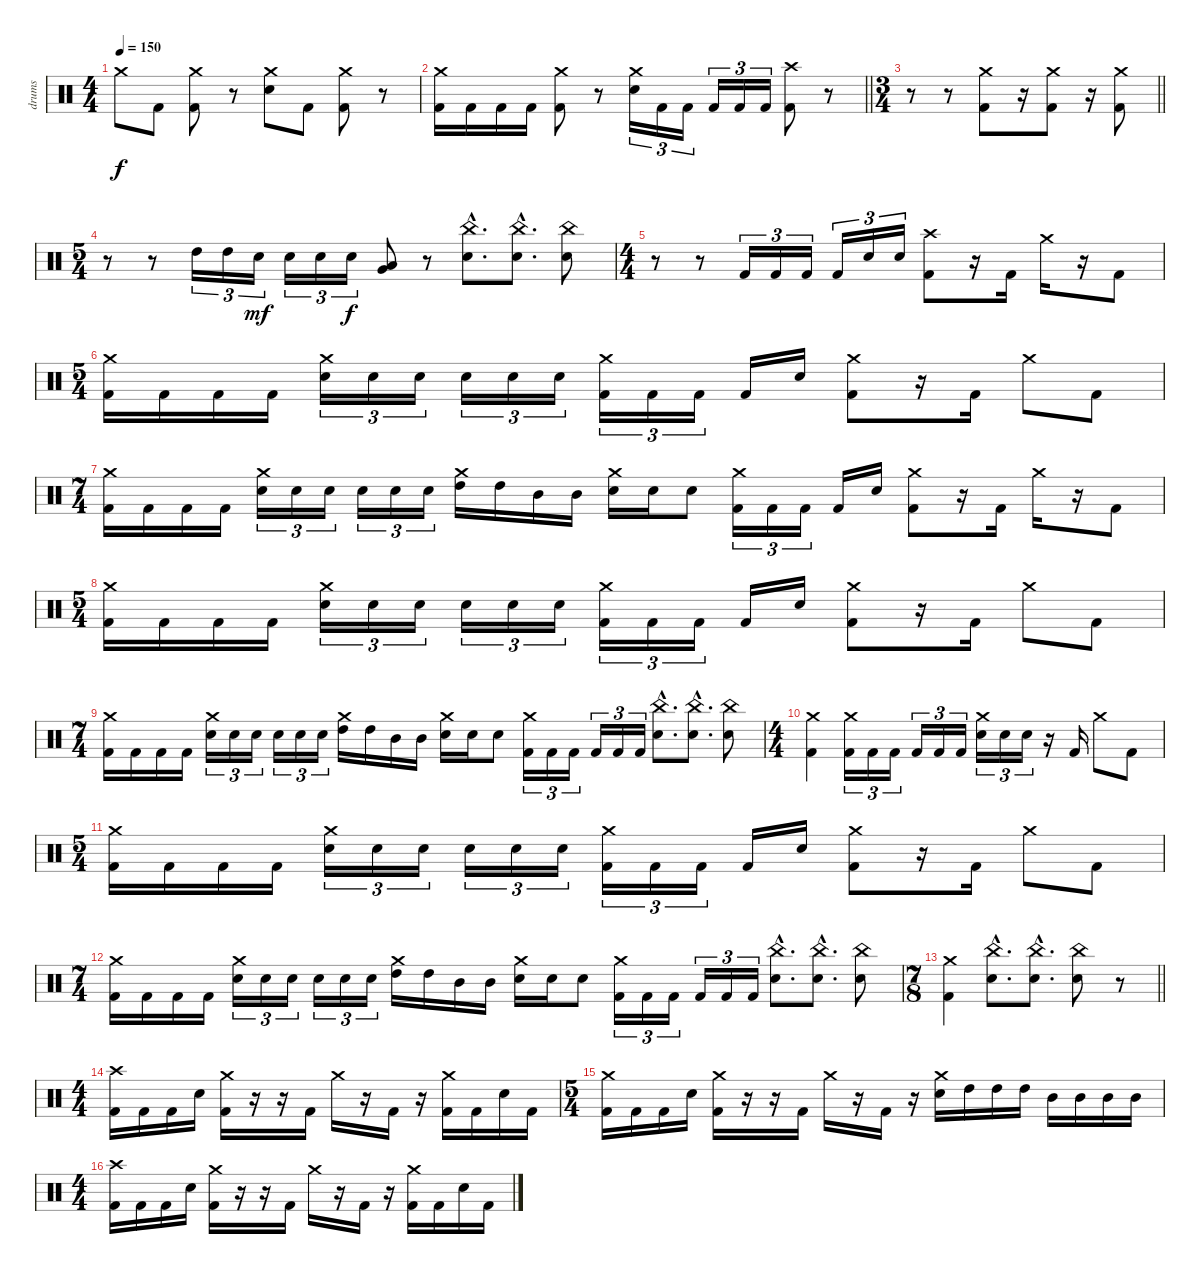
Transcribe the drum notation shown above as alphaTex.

\track ("drums" "drums") {instrument percussion}
\staff {score}
\articulation defaults
\ts (4 4)
\tempo 150
\clef neutral
\ks c "Crash medium (hit)".8{dy f} "Kick (hit) 2".8
("Crash medium (hit)" "Kick (hit) 2").8 r.8 ("Crash medium (hit)" "Electric Snare (hit)").8 "Kick (hit) 2".8 ("Crash medium (hit)" "Kick (hit) 2").8 r.8 |
\barLineRight lightlight
("Crash medium (hit)" "Kick (hit) 2").16 "Kick (hit) 2".16 "Kick (hit) 2".16 "Kick (hit) 2".16 ("Crash medium (hit)" "Kick (hit) 2").8 r.8 ("Crash medium (hit)" "Electric Snare (hit)").16{tu (3 2)} "Kick (hit) 2".16{tu (3 2)} "Kick (hit) 2".16{tu (3 2)} "Kick (hit) 2".16{tu (3 2)} "Kick (hit) 2".16{tu (3 2)} "Kick (hit) 2".16{tu (3 2)} ("Crash high (hit)" "Kick (hit) 2").8 r.8 |
\ts (3 4)
\section ("" "")
\barLineRight lightlight
r.8 r.8 ("Crash medium (hit)" "Kick (hit) 2").8 r.16{volume 0} ("Crash medium (hit)" "Kick (hit) 2").8{volume 16} r.16{volume 0} ("Crash medium (hit)" "Kick (hit) 2").8{volume 16} |
\ts (5 4)
\section ("" "")
r.8 r.8 "High Tom (hit)".16{tu (3 2)} "High Tom (hit)".16{tu (3 2)} "Electric Snare (hit)".16{tu (3 2) dy mf} "Electric Snare (hit)".16{tu (3 2)} "Electric Snare (hit)".16{tu (3 2)} "Electric Snare (hit)".16{tu (3 2) dy f} ("Low Floor Tom (hit)" "Very Low Tom (hit)").8 r.8 ("China (hit)"{hac} "Electric Snare (hit)"{hac}).8{d} ("China (hit)"{hac} "Electric Snare (hit)"{hac}).8{d} ("China (hit)" "Electric Snare (hit)").8 |
\ts (4 4)
r.8 r.8 "Kick (hit) 2".16{tu (3 2)} "Kick (hit) 2".16{tu (3 2)} "Kick (hit) 2".16{tu (3 2)} "Kick (hit) 2".16{tu (3 2)} "Electric Snare (hit)".16{tu (3 2)} "Electric Snare (hit)".16{tu (3 2)} ("Crash high (hit)" "Kick (hit) 2").8 r.16 "Kick (hit) 2".16 "Crash medium (hit)".16 r.16 "Kick (hit) 2".8 |
\ts (5 4)
("Crash medium (hit)" "Kick (hit) 2").16 "Kick (hit) 2".16 "Kick (hit) 2".16 "Kick (hit) 2".16 ("Crash medium (hit)" "Electric Snare (hit)").16{tu (3 2)} "Electric Snare (hit)".16{tu (3 2)} "Electric Snare (hit)".16{tu (3 2)} "Electric Snare (hit)".16{tu (3 2)} "Electric Snare (hit)".16{tu (3 2)} "Electric Snare (hit)".16{tu (3 2)} ("Crash medium (hit)" "Kick (hit) 2").16{tu (3 2)} "Kick (hit) 2".16{tu (3 2)} "Kick (hit) 2".16{tu (3 2)} "Kick (hit) 2".16 "Electric Snare (hit)".16 ("Crash medium (hit)" "Kick (hit) 2").8 r.16 "Kick (hit) 2".16 "Crash medium (hit)".8 "Kick (hit) 2".8 |
\ts (7 4)
("Crash medium (hit)" "Kick (hit) 2").16 "Kick (hit) 2".16 "Kick (hit) 2".16 "Kick (hit) 2".16 ("Crash medium (hit)" "Electric Snare (hit)").16{tu (3 2)} "Electric Snare (hit)".16{tu (3 2)} "Electric Snare (hit)".16{tu (3 2)} "Electric Snare (hit)".16{tu (3 2)} "Electric Snare (hit)".16{tu (3 2)} "Electric Snare (hit)".16{tu (3 2)} ("Crash medium (hit)" "High Tom (hit)").16 "High Tom (hit)".16 "Mid Tom (hit)".16 "Mid Tom (hit)".16 ("Crash medium (hit)" "Electric Snare (hit)").16 "Electric Snare (hit)".16 "Electric Snare (hit)".8 ("Crash medium (hit)" "Kick (hit) 2").16{tu (3 2)} "Kick (hit) 2".16{tu (3 2)} "Kick (hit) 2".16{tu (3 2)} "Kick (hit) 2".16 "Electric Snare (hit)".16 ("Crash medium (hit)" "Kick (hit) 2").8 r.16 "Kick (hit) 2".16 "Crash medium (hit)".16 r.16 "Kick (hit) 2".8 |
\ts (5 4)
("Crash medium (hit)" "Kick (hit) 2").16 "Kick (hit) 2".16 "Kick (hit) 2".16 "Kick (hit) 2".16 ("Crash medium (hit)" "Electric Snare (hit)").16{tu (3 2)} "Electric Snare (hit)".16{tu (3 2)} "Electric Snare (hit)".16{tu (3 2)} "Electric Snare (hit)".16{tu (3 2)} "Electric Snare (hit)".16{tu (3 2)} "Electric Snare (hit)".16{tu (3 2)} ("Crash medium (hit)" "Kick (hit) 2").16{tu (3 2)} "Kick (hit) 2".16{tu (3 2)} "Kick (hit) 2".16{tu (3 2)} "Kick (hit) 2".16 "Electric Snare (hit)".16 ("Crash medium (hit)" "Kick (hit) 2").8 r.16 "Kick (hit) 2".16 "Crash medium (hit)".8 "Kick (hit) 2".8 |
\ts (7 4)
("Crash medium (hit)" "Kick (hit) 2").16 "Kick (hit) 2".16 "Kick (hit) 2".16 "Kick (hit) 2".16 ("Crash medium (hit)" "Electric Snare (hit)").16{tu (3 2)} "Electric Snare (hit)".16{tu (3 2)} "Electric Snare (hit)".16{tu (3 2)} "Electric Snare (hit)".16{tu (3 2)} "Electric Snare (hit)".16{tu (3 2)} "Electric Snare (hit)".16{tu (3 2)} ("Crash medium (hit)" "High Tom (hit)").16 "High Tom (hit)".16 "Mid Tom (hit)".16 "Mid Tom (hit)".16 ("Crash medium (hit)" "Electric Snare (hit)").16 "Electric Snare (hit)".16 "Electric Snare (hit)".8 ("Crash medium (hit)" "Kick (hit) 2").16{tu (3 2)} "Kick (hit) 2".16{tu (3 2)} "Kick (hit) 2".16{tu (3 2)} "Kick (hit) 2".16{tu (3 2)} "Kick (hit) 2".16{tu (3 2)} "Kick (hit) 2".16{tu (3 2)} ("China (hit)"{hac} "Electric Snare (hit)"{hac}).8{d} ("China (hit)"{hac} "Electric Snare (hit)"{hac}).8{d} ("China (hit)" "Electric Snare (hit)").8 |
\ts (4 4)
("Crash medium (hit)" "Kick (hit) 2").4 ("Crash medium (hit)" "Kick (hit) 2").16{tu (3 2)} "Kick (hit) 2".16{tu (3 2)} "Kick (hit) 2".16{tu (3 2)} "Kick (hit) 2".16{tu (3 2)} "Kick (hit) 2".16{tu (3 2)} "Kick (hit) 2".16{tu (3 2)} ("Crash medium (hit)" "Electric Snare (hit)").16{tu (3 2)} "Electric Snare (hit)".16{tu (3 2)} "Electric Snare (hit)".16{tu (3 2)} r.16 "Kick (hit) 2".16 "Crash medium (hit)".8 "Kick (hit) 2".8 |
\ts (5 4)
("Crash medium (hit)" "Kick (hit) 2").16 "Kick (hit) 2".16 "Kick (hit) 2".16 "Kick (hit) 2".16 ("Crash medium (hit)" "Electric Snare (hit)").16{tu (3 2)} "Electric Snare (hit)".16{tu (3 2)} "Electric Snare (hit)".16{tu (3 2)} "Electric Snare (hit)".16{tu (3 2)} "Electric Snare (hit)".16{tu (3 2)} "Electric Snare (hit)".16{tu (3 2)} ("Crash medium (hit)" "Kick (hit) 2").16{tu (3 2)} "Kick (hit) 2".16{tu (3 2)} "Kick (hit) 2".16{tu (3 2)} "Kick (hit) 2".16 "Electric Snare (hit)".16 ("Crash medium (hit)" "Kick (hit) 2").8 r.16 "Kick (hit) 2".16 "Crash medium (hit)".8 "Kick (hit) 2".8 |
\ts (7 4)
("Crash medium (hit)" "Kick (hit) 2").16 "Kick (hit) 2".16 "Kick (hit) 2".16 "Kick (hit) 2".16 ("Crash medium (hit)" "Electric Snare (hit)").16{tu (3 2)} "Electric Snare (hit)".16{tu (3 2)} "Electric Snare (hit)".16{tu (3 2)} "Electric Snare (hit)".16{tu (3 2)} "Electric Snare (hit)".16{tu (3 2)} "Electric Snare (hit)".16{tu (3 2)} ("Crash medium (hit)" "High Tom (hit)").16 "High Tom (hit)".16 "Mid Tom (hit)".16 "Mid Tom (hit)".16 ("Crash medium (hit)" "Electric Snare (hit)").16 "Electric Snare (hit)".16 "Electric Snare (hit)".8 ("Crash medium (hit)" "Kick (hit) 2").16{tu (3 2)} "Kick (hit) 2".16{tu (3 2)} "Kick (hit) 2".16{tu (3 2)} "Kick (hit) 2".16{tu (3 2)} "Kick (hit) 2".16{tu (3 2)} "Kick (hit) 2".16{tu (3 2)} ("China (hit)"{hac} "Electric Snare (hit)"{hac}).8{d} ("China (hit)"{hac} "Electric Snare (hit)"{hac}).8{d} ("China (hit)" "Electric Snare (hit)").8 |
\ts (7 8)
\barLineRight lightlight
("Crash medium (hit)" "Kick (hit) 2").4 ("China (hit)"{hac} "Electric Snare (hit)"{hac}).8{d} ("China (hit)"{hac} "Electric Snare (hit)"{hac}).8{d} ("China (hit)" "Electric Snare (hit)").8 r.8 |
\ts (4 4)
\section ("" "")
("Crash high (hit)" "Kick (hit) 2").16 "Kick (hit) 2".16 "Kick (hit) 2".16 "Electric Snare (hit)".16 ("Crash medium (hit)" "Kick (hit) 2").16 r.16 r.16 "Kick (hit) 2".16 "Crash medium (hit)".16 r.16 "Kick (hit) 2".16 r.16 ("Crash medium (hit)" "Kick (hit) 2").16 "Kick (hit) 2".16 "Electric Snare (hit)".16 "Kick (hit) 2".16 |
\ts (5 4)
("Crash medium (hit)" "Kick (hit) 2").16 "Kick (hit) 2".16 "Kick (hit) 2".16 "Electric Snare (hit)".16 ("Crash medium (hit)" "Kick (hit) 2").16 r.16 r.16 "Kick (hit) 2".16 "Crash medium (hit)".16 r.16 "Kick (hit) 2".16 r.16 ("Crash medium (hit)" "Electric Snare (hit)").16 "High Tom (hit)".16 "High Tom (hit)".16 "High Tom (hit)".16 "Mid Tom (hit)".16 "Mid Tom (hit)".16 "Mid Tom (hit)".16 "Mid Tom (hit)".16 |
\ts (4 4)
("Crash high (hit)" "Kick (hit) 2").16 "Kick (hit) 2".16 "Kick (hit) 2".16 "Electric Snare (hit)".16 ("Crash medium (hit)" "Kick (hit) 2").16 r.16 r.16 "Kick (hit) 2".16 "Crash medium (hit)".16 r.16 "Kick (hit) 2".16 r.16 ("Crash medium (hit)" "Kick (hit) 2").16 "Kick (hit) 2".16 "Electric Snare (hit)".16 "Kick (hit) 2".16
